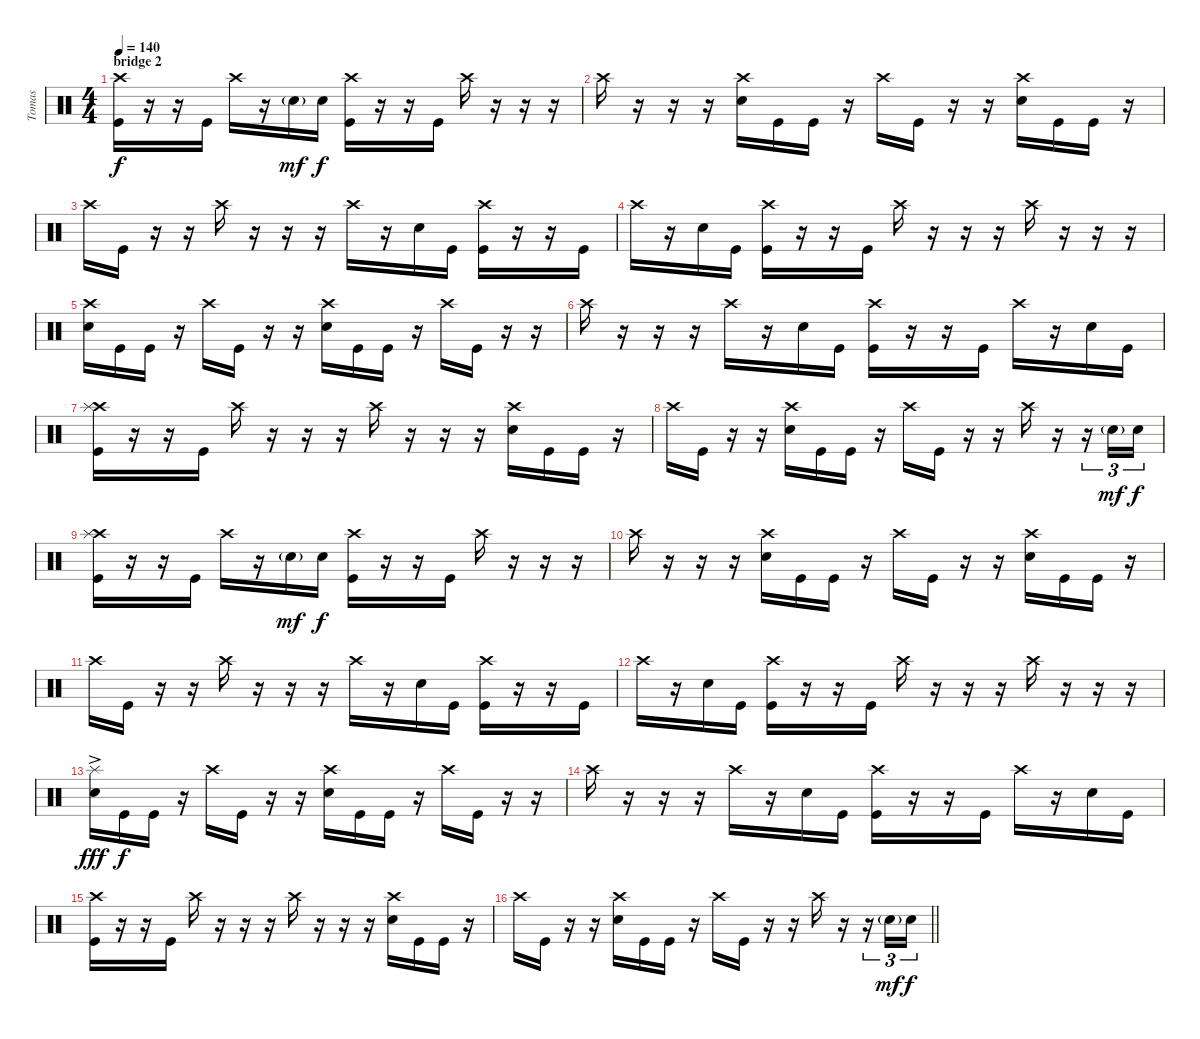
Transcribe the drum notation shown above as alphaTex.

\track ("Tomas" "Tomas") {instrument percussion}
\staff {score}
\articulation defaults
\ts (4 4)
\section ("" "bridge 2")
\tempo 140
\clef neutral
\ks c
("Crash high (hit)" "Kick (hit)").16{dy f} r.16 r.16 "Kick (hit)".16 "Crash high (hit)".16 r.16 "Electric Snare (hit)"{g}.16{dy mf} "Electric Snare (hit)".16{dy f} ("Crash high (hit)" "Kick (hit)").16 r.16 r.16 "Kick (hit)".16 "Crash high (hit)".16 r.16 r.16 r.16 |
"Crash high (hit)".16 r.16 r.16 r.16 ("Crash high (hit)" "Electric Snare (hit)").16 "Kick (hit)".16 "Kick (hit)".16 r.16 "Crash high (hit)".16 "Kick (hit)".16 r.16 r.16 ("Crash high (hit)" "Electric Snare (hit)").16 "Kick (hit)".16 "Kick (hit)".16 r.16 |
"Crash high (hit)".16 "Kick (hit)".16 r.16 r.16 "Crash high (hit)".16 r.16 r.16 r.16 "Crash high (hit)".16 r.16 "Electric Snare (hit)".16 "Kick (hit)".16 ("Crash high (hit)" "Kick (hit)").16 r.16 r.16 "Kick (hit)".16 |
"Crash high (hit)".16 r.16 "Electric Snare (hit)".16 "Kick (hit)".16 ("Crash high (hit)" "Kick (hit)").16 r.16 r.16 "Kick (hit)".16 "Crash high (hit)".16 r.16 r.16 r.16 "Crash high (hit)".16 r.16 r.16 r.16 |
("Crash high (hit)" "Electric Snare (hit)").16 "Kick (hit)".16 "Kick (hit)".16 r.16 "Crash high (hit)".16 "Kick (hit)".16 r.16 r.16 ("Crash high (hit)" "Electric Snare (hit)").16 "Kick (hit)".16 "Kick (hit)".16 r.16 "Crash high (hit)".16 "Kick (hit)".16 r.16 r.16 |
"Crash high (hit)".16 r.16 r.16 r.16 "Crash high (hit)".16 r.16 "Electric Snare (hit)".16 "Kick (hit)".16 ("Crash high (hit)" "Kick (hit)").16 r.16 r.16 "Kick (hit)".16 "Crash high (hit)".16 r.16 "Electric Snare (hit)".16 "Kick (hit)".16 |
("Crash high (hit)" "Splash (hit)" "Kick (hit)").16 r.16 r.16 "Kick (hit)".16 "Crash high (hit)".16 r.16 r.16 r.16 "Crash high (hit)".16 r.16 r.16 r.16 ("Crash high (hit)" "Electric Snare (hit)").16 "Kick (hit)".16 "Kick (hit)".16 r.16 |
"Crash high (hit)".16 "Kick (hit)".16 r.16 r.16 ("Crash high (hit)" "Electric Snare (hit)").16 "Kick (hit)".16 "Kick (hit)".16 r.16 "Crash high (hit)".16 "Kick (hit)".16 r.16 r.16 "Crash high (hit)".16 r.16 r.16{tu (3 2)} "Electric Snare (hit)"{g}.16{tu (3 2) dy mf} "Electric Snare (hit)".16{tu (3 2) dy f} |
("Crash high (hit)" "Splash (hit)" "Kick (hit)").16 r.16 r.16 "Kick (hit)".16 "Crash high (hit)".16 r.16 "Electric Snare (hit)"{g}.16{dy mf} "Electric Snare (hit)".16{dy f} ("Crash high (hit)" "Kick (hit)").16 r.16 r.16 "Kick (hit)".16 "Crash high (hit)".16 r.16 r.16 r.16 |
"Crash high (hit)".16 r.16 r.16 r.16 ("Crash high (hit)" "Electric Snare (hit)").16 "Kick (hit)".16 "Kick (hit)".16 r.16 "Crash high (hit)".16 "Kick (hit)".16 r.16 r.16 ("Crash high (hit)" "Electric Snare (hit)").16 "Kick (hit)".16 "Kick (hit)".16 r.16 |
"Crash high (hit)".16 "Kick (hit)".16 r.16 r.16 "Crash high (hit)".16 r.16 r.16 r.16 "Crash high (hit)".16 r.16 "Electric Snare (hit)".16 "Kick (hit)".16 ("Crash high (hit)" "Kick (hit)").16 r.16 r.16 "Kick (hit)".16 |
"Crash high (hit)".16 r.16 "Electric Snare (hit)".16 "Kick (hit)".16 ("Crash high (hit)" "Kick (hit)").16 r.16 r.16 "Kick (hit)".16 "Crash high (hit)".16 r.16 r.16 r.16 "Crash high (hit)".16 r.16 r.16 r.16 |
("Splash (hit)"{ac} "Electric Snare (hit)").16{dy fff} "Kick (hit)".16{dy f} "Kick (hit)".16 r.16 "Crash high (hit)".16 "Kick (hit)".16 r.16 r.16 ("Crash high (hit)" "Electric Snare (hit)").16 "Kick (hit)".16 "Kick (hit)".16 r.16 "Crash high (hit)".16 "Kick (hit)".16 r.16 r.16 |
"Crash high (hit)".16 r.16 r.16 r.16 "Crash high (hit)".16 r.16 "Electric Snare (hit)".16 "Kick (hit)".16 ("Crash high (hit)" "Kick (hit)").16 r.16 r.16 "Kick (hit)".16 "Crash high (hit)".16 r.16 "Electric Snare (hit)".16 "Kick (hit)".16 |
("Crash high (hit)" "Kick (hit)").16 r.16 r.16 "Kick (hit)".16 "Crash high (hit)".16 r.16 r.16 r.16 "Crash high (hit)".16 r.16 r.16 r.16 ("Crash high (hit)" "Electric Snare (hit)").16 "Kick (hit)".16 "Kick (hit)".16 r.16 |
\barLineRight lightlight "Crash high (hit)".16 "Kick (hit)".16
r.16 r.16 ("Crash high (hit)" "Electric Snare (hit)").16 "Kick (hit)".16 "Kick (hit)".16 r.16 "Crash high (hit)".16 "Kick (hit)".16 r.16 r.16 "Crash high (hit)".16 r.16 r.16{tu (3 2)} "Electric Snare (hit)"{g}.16{tu (3 2) dy mf} "Electric Snare (hit)".16{tu (3 2) dy f}
